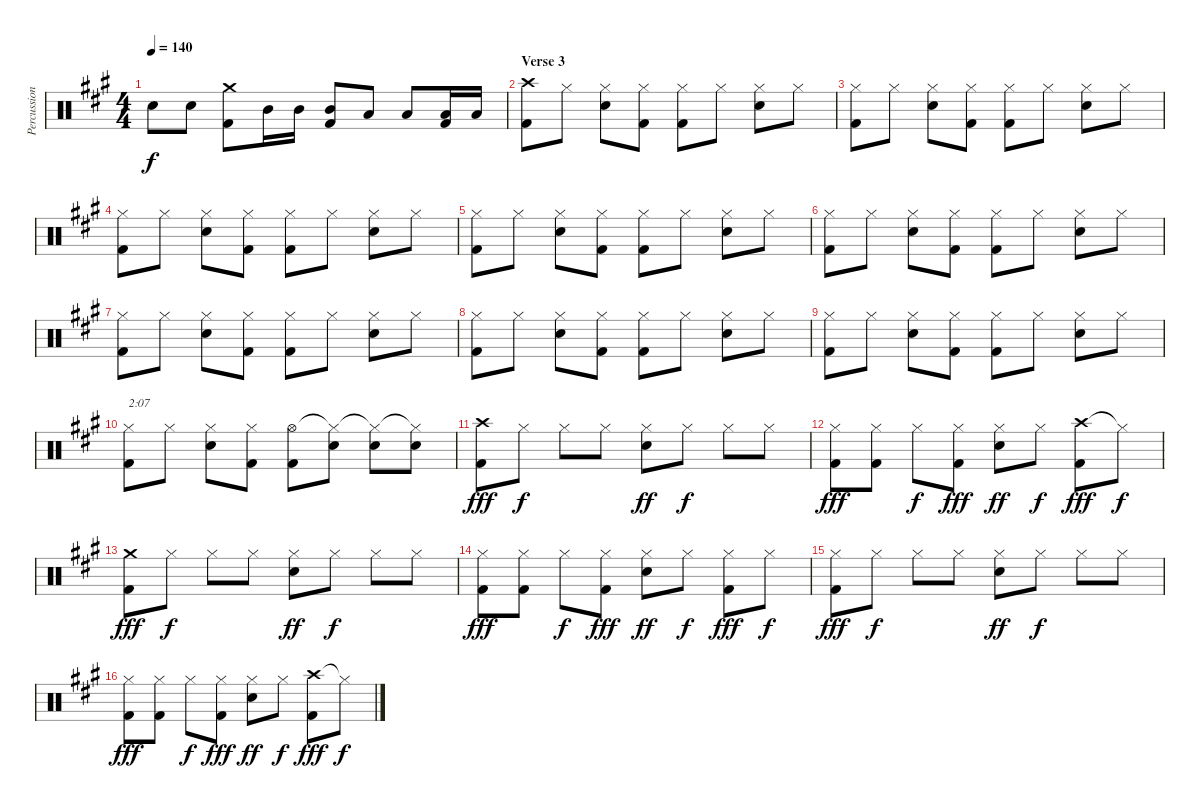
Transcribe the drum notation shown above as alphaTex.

\track ("Percussion" "Percussion") {instrument percussion}
\staff {score}
\articulation defaults
\ts (4 4)
\tempo 140
\clef neutral
\ks a "Snare (hit)"{t}.8{dy f} "Electric Snare (hit)".8
("Crash medium (hit)" "Kick (hit) 2").8 "Mid Tom (hit)".16 "Mid Tom (hit)".16 ("Mid Tom (hit)" "Kick (hit) 2").8 "Low Tom (hit)".8 "Low Tom (hit)".8 ("Low Floor Tom (hit)" "Kick (hit) 2").16 "Low Floor Tom (hit)".16 |
\section ("" "Verse 3")
("Crash high (hit)" "Kick (hit) 2").8 "Hi-Hat (closed)".8 ("Hi-Hat (closed)" "Electric Snare (hit)").8 ("Hi-Hat (closed)" "Kick (hit) 2").8 ("Hi-Hat (closed)" "Kick (hit) 2").8 "Hi-Hat (closed)".8 ("Hi-Hat (closed)" "Electric Snare (hit)").8 "Hi-Hat (closed)".8 |
("Hi-Hat (closed)" "Kick (hit) 2").8 "Hi-Hat (closed)".8 ("Hi-Hat (closed)" "Electric Snare (hit)").8 ("Hi-Hat (closed)" "Kick (hit) 2").8 ("Hi-Hat (closed)" "Kick (hit) 2").8 "Hi-Hat (closed)".8 ("Hi-Hat (closed)" "Electric Snare (hit)").8 "Hi-Hat (closed)".8 |
("Hi-Hat (closed)" "Kick (hit) 2").8 "Hi-Hat (closed)".8 ("Hi-Hat (closed)" "Electric Snare (hit)").8 ("Hi-Hat (closed)" "Kick (hit) 2").8 ("Hi-Hat (closed)" "Kick (hit) 2").8 "Hi-Hat (closed)".8 ("Hi-Hat (closed)" "Electric Snare (hit)").8 "Hi-Hat (closed)".8 |
("Hi-Hat (closed)" "Kick (hit) 2").8 "Hi-Hat (closed)".8 ("Hi-Hat (closed)" "Electric Snare (hit)").8 ("Hi-Hat (closed)" "Kick (hit) 2").8 ("Hi-Hat (closed)" "Kick (hit) 2").8 "Hi-Hat (closed)".8 ("Hi-Hat (closed)" "Electric Snare (hit)").8 "Hi-Hat (closed)".8 |
("Hi-Hat (closed)" "Kick (hit) 2").8 "Hi-Hat (closed)".8 ("Hi-Hat (closed)" "Electric Snare (hit)").8 ("Hi-Hat (closed)" "Kick (hit) 2").8 ("Hi-Hat (closed)" "Kick (hit) 2").8 "Hi-Hat (closed)".8 ("Hi-Hat (closed)" "Electric Snare (hit)").8 "Hi-Hat (closed)".8 |
("Hi-Hat (closed)" "Kick (hit) 2").8 "Hi-Hat (closed)".8 ("Hi-Hat (closed)" "Electric Snare (hit)").8 ("Hi-Hat (closed)" "Kick (hit) 2").8 ("Hi-Hat (closed)" "Kick (hit) 2").8 "Hi-Hat (closed)".8 ("Hi-Hat (closed)" "Electric Snare (hit)").8 "Hi-Hat (closed)".8 |
("Hi-Hat (closed)" "Kick (hit) 2").8 "Hi-Hat (closed)".8 ("Hi-Hat (closed)" "Electric Snare (hit)").8 ("Hi-Hat (closed)" "Kick (hit) 2").8 ("Hi-Hat (closed)" "Kick (hit) 2").8 "Hi-Hat (closed)".8 ("Hi-Hat (closed)" "Electric Snare (hit)").8 "Hi-Hat (closed)".8 |
("Hi-Hat (closed)" "Kick (hit) 2").8 "Hi-Hat (closed)".8 ("Hi-Hat (closed)" "Electric Snare (hit)").8 ("Hi-Hat (closed)" "Kick (hit) 2").8 ("Hi-Hat (closed)" "Kick (hit) 2").8 "Hi-Hat (closed)".8 ("Hi-Hat (closed)" "Electric Snare (hit)").8 "Hi-Hat (closed)".8 |
("Hi-Hat (closed)" "Kick (hit) 2").8{txt "2:07"} "Hi-Hat (closed)".8 ("Hi-Hat (closed)" "Electric Snare (hit)").8 ("Hi-Hat (closed)" "Kick (hit) 2").8 ("Hi-Hat (open)" "Kick (hit) 2").8 ("Hi-Hat (closed)"{t} "Electric Snare (hit)").8 ("Hi-Hat (closed)"{t} "Electric Snare (hit)").8 ("Hi-Hat (closed)"{t} "Electric Snare (hit)").8 |
("Crash high (hit)" "Kick (hit) 2").8{dy fff} "Hi-Hat (closed)".8{dy f} "Hi-Hat (closed)".8 "Hi-Hat (closed)".8 ("Hi-Hat (closed)" "Electric Snare (hit)").8{dy ff} "Hi-Hat (closed)".8{dy f} "Hi-Hat (closed)".8 "Hi-Hat (closed)".8 |
("Hi-Hat (closed)" "Kick (hit) 2").8{dy fff} ("Hi-Hat (closed)" "Kick (hit) 2").8 "Hi-Hat (closed)".8{dy f} ("Hi-Hat (closed)" "Kick (hit) 2").8{dy fff} ("Hi-Hat (closed)" "Electric Snare (hit)").8{dy ff} "Hi-Hat (closed)".8{dy f} ("Crash high (hit)" "Kick (hit) 2").8{dy fff} "Hi-Hat (closed)"{t}.8{dy f} |
("Crash medium (hit)" "Kick (hit) 2").8{dy fff} "Hi-Hat (closed)".8{dy f} "Hi-Hat (closed)".8 "Hi-Hat (closed)".8 ("Hi-Hat (closed)" "Electric Snare (hit)").8{dy ff} "Hi-Hat (closed)".8{dy f} "Hi-Hat (closed)".8 "Hi-Hat (closed)".8 |
("Hi-Hat (closed)" "Kick (hit) 2").8{dy fff} ("Hi-Hat (closed)" "Kick (hit) 2").8 "Hi-Hat (closed)".8{dy f} ("Hi-Hat (closed)" "Kick (hit) 2").8{dy fff} ("Hi-Hat (closed)" "Electric Snare (hit)").8{dy ff} "Hi-Hat (closed)".8{dy f} ("Hi-Hat (closed)" "Kick (hit) 2").8{dy fff} "Hi-Hat (closed)".8{dy f} |
("Hi-Hat (closed)" "Kick (hit) 2").8{dy fff} "Hi-Hat (closed)".8{dy f} "Hi-Hat (closed)".8 "Hi-Hat (closed)".8 ("Hi-Hat (closed)" "Electric Snare (hit)").8{dy ff} "Hi-Hat (closed)".8{dy f} "Hi-Hat (closed)".8 "Hi-Hat (closed)".8 |
("Hi-Hat (closed)" "Kick (hit) 2").8{dy fff} ("Hi-Hat (closed)" "Kick (hit) 2").8 "Hi-Hat (closed)".8{dy f} ("Hi-Hat (closed)" "Kick (hit) 2").8{dy fff} ("Hi-Hat (closed)" "Electric Snare (hit)").8{dy ff} "Hi-Hat (closed)".8{dy f} ("Crash high (hit)" "Kick (hit) 2").8{dy fff} "Hi-Hat (closed)"{t}.8{dy f}
